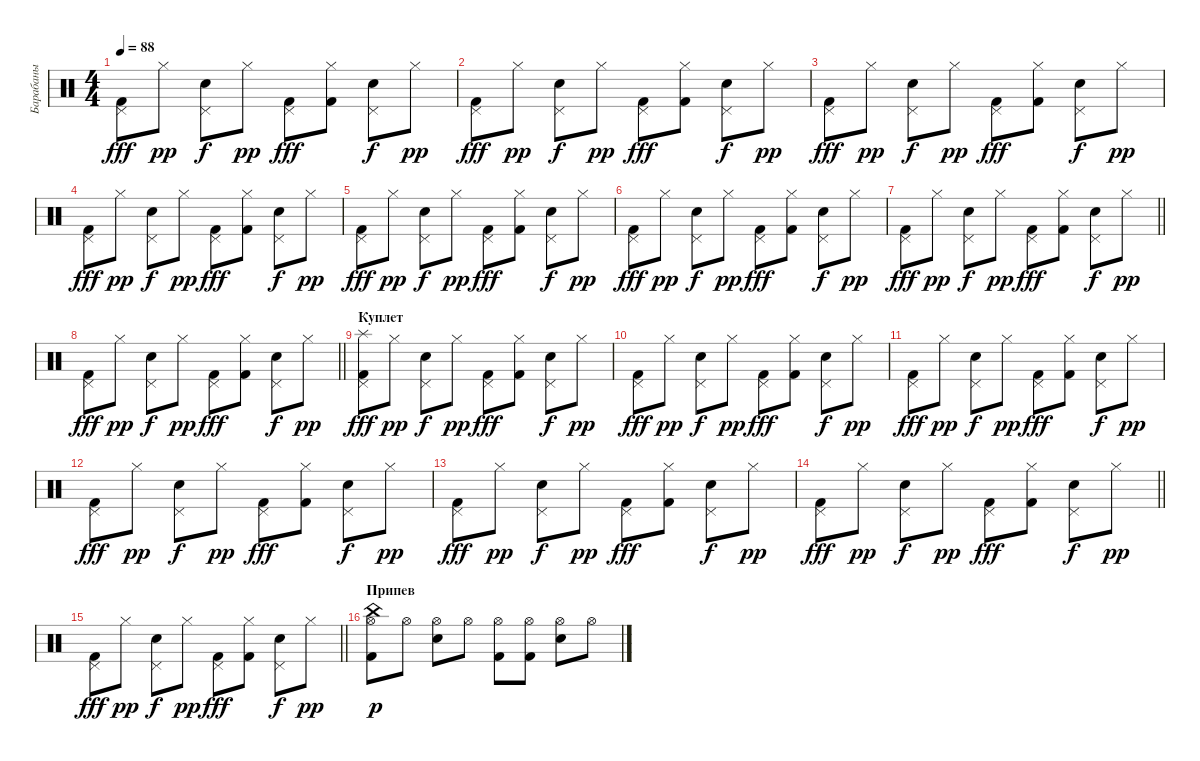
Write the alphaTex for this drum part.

\track ("Барабаны" "Барабаны") {instrument percussion}
\staff {score}
\articulation defaults
\ts (4 4)
\tempo 88
\clef neutral
\ks c
("Pedal Hi-Hat (hit)" "Kick (hit) 2").8{dy fff} "Hi-Hat (closed)".8{dy pp} ("Pedal Hi-Hat (hit)" "Electric Snare (hit)").8{dy f} "Hi-Hat (closed)".8{dy pp} ("Pedal Hi-Hat (hit)" "Kick (hit) 2").8{dy fff} ("Hi-Hat (closed)" "Kick (hit) 2").8 ("Pedal Hi-Hat (hit)" "Electric Snare (hit)").8{dy f} "Hi-Hat (closed)".8{dy pp} |
("Pedal Hi-Hat (hit)" "Kick (hit) 2").8{dy fff} "Hi-Hat (closed)".8{dy pp} ("Pedal Hi-Hat (hit)" "Electric Snare (hit)").8{dy f} "Hi-Hat (closed)".8{dy pp} ("Pedal Hi-Hat (hit)" "Kick (hit) 2").8{dy fff} ("Hi-Hat (closed)" "Kick (hit) 2").8 ("Pedal Hi-Hat (hit)" "Electric Snare (hit)").8{dy f} "Hi-Hat (closed)".8{dy pp} |
("Pedal Hi-Hat (hit)" "Kick (hit) 2").8{dy fff} "Hi-Hat (closed)".8{dy pp} ("Pedal Hi-Hat (hit)" "Electric Snare (hit)").8{dy f} "Hi-Hat (closed)".8{dy pp} ("Pedal Hi-Hat (hit)" "Kick (hit) 2").8{dy fff} ("Hi-Hat (closed)" "Kick (hit) 2").8 ("Pedal Hi-Hat (hit)" "Electric Snare (hit)").8{dy f} "Hi-Hat (closed)".8{dy pp} |
("Pedal Hi-Hat (hit)" "Kick (hit) 2").8{dy fff} "Hi-Hat (closed)".8{dy pp} ("Pedal Hi-Hat (hit)" "Electric Snare (hit)").8{dy f} "Hi-Hat (closed)".8{dy pp} ("Pedal Hi-Hat (hit)" "Kick (hit) 2").8{dy fff} ("Hi-Hat (closed)" "Kick (hit) 2").8 ("Pedal Hi-Hat (hit)" "Electric Snare (hit)").8{dy f} "Hi-Hat (closed)".8{dy pp} |
("Pedal Hi-Hat (hit)" "Kick (hit) 2").8{dy fff} "Hi-Hat (closed)".8{dy pp} ("Pedal Hi-Hat (hit)" "Electric Snare (hit)").8{dy f} "Hi-Hat (closed)".8{dy pp} ("Pedal Hi-Hat (hit)" "Kick (hit) 2").8{dy fff} ("Hi-Hat (closed)" "Kick (hit) 2").8 ("Pedal Hi-Hat (hit)" "Electric Snare (hit)").8{dy f} "Hi-Hat (closed)".8{dy pp} |
("Pedal Hi-Hat (hit)" "Kick (hit) 2").8{dy fff} "Hi-Hat (closed)".8{dy pp} ("Pedal Hi-Hat (hit)" "Electric Snare (hit)").8{dy f} "Hi-Hat (closed)".8{dy pp} ("Pedal Hi-Hat (hit)" "Kick (hit) 2").8{dy fff} ("Hi-Hat (closed)" "Kick (hit) 2").8 ("Pedal Hi-Hat (hit)" "Electric Snare (hit)").8{dy f} "Hi-Hat (closed)".8{dy pp} |
\barLineRight lightlight
("Pedal Hi-Hat (hit)" "Kick (hit) 2").8{dy fff} "Hi-Hat (closed)".8{dy pp} ("Pedal Hi-Hat (hit)" "Electric Snare (hit)").8{dy f} "Hi-Hat (closed)".8{dy pp} ("Pedal Hi-Hat (hit)" "Kick (hit) 2").8{dy fff} ("Hi-Hat (closed)" "Kick (hit) 2").8 ("Pedal Hi-Hat (hit)" "Electric Snare (hit)").8{dy f} "Hi-Hat (closed)".8{dy pp} |
\barLineRight lightlight
("Pedal Hi-Hat (hit)" "Kick (hit) 2").8{dy fff} "Hi-Hat (closed)".8{dy pp} ("Pedal Hi-Hat (hit)" "Electric Snare (hit)").8{dy f} "Hi-Hat (closed)".8{dy pp} ("Pedal Hi-Hat (hit)" "Kick (hit) 2").8{dy fff} ("Hi-Hat (closed)" "Kick (hit) 2").8 ("Pedal Hi-Hat (hit)" "Electric Snare (hit)").8{dy f} "Hi-Hat (closed)".8{dy pp} |
\section ("" "Куплет")
("Splash (hit)" "Pedal Hi-Hat (hit)" "Kick (hit) 2").8{dy fff} "Hi-Hat (closed)".8{dy pp} ("Pedal Hi-Hat (hit)" "Electric Snare (hit)").8{dy f} "Hi-Hat (closed)".8{dy pp} ("Pedal Hi-Hat (hit)" "Kick (hit) 2").8{dy fff} ("Hi-Hat (closed)" "Kick (hit) 2").8 ("Pedal Hi-Hat (hit)" "Electric Snare (hit)").8{dy f} "Hi-Hat (closed)".8{dy pp} |
("Pedal Hi-Hat (hit)" "Kick (hit) 2").8{dy fff} "Hi-Hat (closed)".8{dy pp} ("Pedal Hi-Hat (hit)" "Electric Snare (hit)").8{dy f} "Hi-Hat (closed)".8{dy pp} ("Pedal Hi-Hat (hit)" "Kick (hit) 2").8{dy fff} ("Hi-Hat (closed)" "Kick (hit) 2").8 ("Pedal Hi-Hat (hit)" "Electric Snare (hit)").8{dy f} "Hi-Hat (closed)".8{dy pp} |
("Pedal Hi-Hat (hit)" "Kick (hit) 2").8{dy fff} "Hi-Hat (closed)".8{dy pp} ("Pedal Hi-Hat (hit)" "Electric Snare (hit)").8{dy f} "Hi-Hat (closed)".8{dy pp} ("Pedal Hi-Hat (hit)" "Kick (hit) 2").8{dy fff} ("Hi-Hat (closed)" "Kick (hit) 2").8 ("Pedal Hi-Hat (hit)" "Electric Snare (hit)").8{dy f} "Hi-Hat (closed)".8{dy pp} |
("Pedal Hi-Hat (hit)" "Kick (hit) 2").8{dy fff} "Hi-Hat (closed)".8{dy pp} ("Pedal Hi-Hat (hit)" "Electric Snare (hit)").8{dy f} "Hi-Hat (closed)".8{dy pp} ("Pedal Hi-Hat (hit)" "Kick (hit) 2").8{dy fff} ("Hi-Hat (closed)" "Kick (hit) 2").8 ("Pedal Hi-Hat (hit)" "Electric Snare (hit)").8{dy f} "Hi-Hat (closed)".8{dy pp} |
("Pedal Hi-Hat (hit)" "Kick (hit) 2").8{dy fff} "Hi-Hat (closed)".8{dy pp} ("Pedal Hi-Hat (hit)" "Electric Snare (hit)").8{dy f} "Hi-Hat (closed)".8{dy pp} ("Pedal Hi-Hat (hit)" "Kick (hit) 2").8{dy fff} ("Hi-Hat (closed)" "Kick (hit) 2").8 ("Pedal Hi-Hat (hit)" "Electric Snare (hit)").8{dy f} "Hi-Hat (closed)".8{dy pp} |
\barLineRight lightlight
("Pedal Hi-Hat (hit)" "Kick (hit) 2").8{dy fff} "Hi-Hat (closed)".8{dy pp} ("Pedal Hi-Hat (hit)" "Electric Snare (hit)").8{dy f} "Hi-Hat (closed)".8{dy pp} ("Pedal Hi-Hat (hit)" "Kick (hit) 2").8{dy fff} ("Hi-Hat (closed)" "Kick (hit) 2").8 ("Pedal Hi-Hat (hit)" "Electric Snare (hit)").8{dy f} "Hi-Hat (closed)".8{dy pp} |
\barLineRight lightlight
("Pedal Hi-Hat (hit)" "Kick (hit) 2").8{dy fff} "Hi-Hat (closed)".8{dy pp} ("Pedal Hi-Hat (hit)" "Electric Snare (hit)").8{dy f} "Hi-Hat (closed)".8{dy pp} ("Pedal Hi-Hat (hit)" "Kick (hit) 2").8{dy fff} ("Hi-Hat (closed)" "Kick (hit) 2").8 ("Pedal Hi-Hat (hit)" "Electric Snare (hit)").8{dy f} "Hi-Hat (closed)".8{dy pp} |
\section ("" "Припев")
("China (hit)" "Kick (hit) 2" "Hi-Hat (open)").8{dy p} "Hi-Hat (open)".8 ("Electric Snare (hit)" "Hi-Hat (open)").8 "Hi-Hat (open)".8 ("Kick (hit) 2" "Hi-Hat (open)").8 ("Kick (hit) 2" "Hi-Hat (open)").8 ("Electric Snare (hit)" "Hi-Hat (open)").8 "Hi-Hat (open)".8
